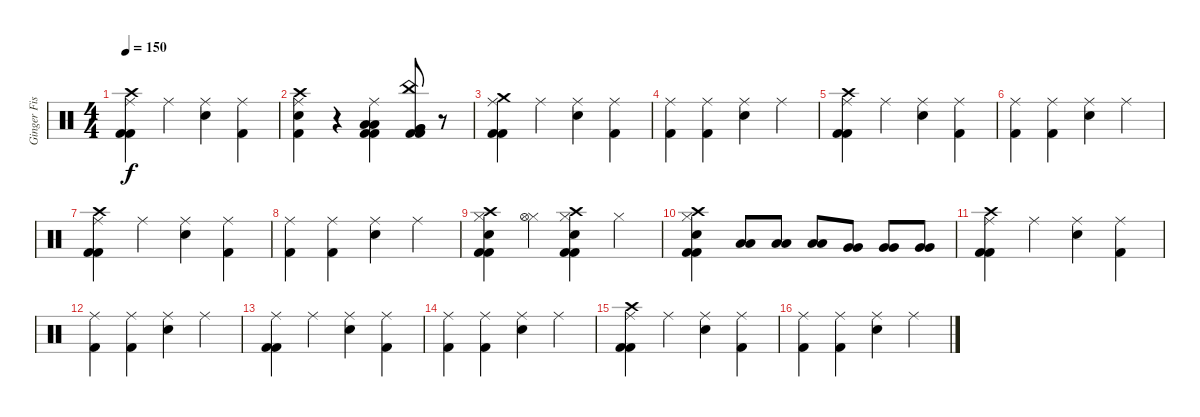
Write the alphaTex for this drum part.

\track ("Ginger Fish" "Ginger Fis") {instrument percussion}
\staff {score}
\articulation defaults
\ts (4 4)
\tempo 150
\clef neutral
\ks c
("Crash high (hit)" "Ride (middle)" "Kick (hit) 2" "Kick (hit) 2").4{dy f} "Ride (middle)".4 ("Ride (middle)" "Electric Snare (hit)").4 ("Ride (middle)" "Kick (hit) 2").4 |
("Crash high (hit)" "Ride (middle)" "Electric Snare (hit)" "Kick (hit) 2").4 r.4 ("Ride (middle)" "Low Tom (hit)" "Low Tom (hit)" "Kick (hit) 2" "Kick (hit) 2").4 ("China (hit)" "Very Low Tom (hit)" "Very Low Tom (hit)" "Kick (hit) 2" "Kick (hit) 2").8 r.8 |
("Crash medium (hit)" "Ride (middle)" "Kick (hit) 2" "Kick (hit) 2").4 "Ride (middle)".4 ("Ride (middle)" "Electric Snare (hit)").4 ("Ride (middle)" "Kick (hit) 2").4 |
("Ride (middle)" "Kick (hit) 2").4 ("Ride (middle)" "Kick (hit) 2").4 ("Ride (middle)" "Electric Snare (hit)").4 "Ride (middle)".4 |
("Crash high (hit)" "Ride (middle)" "Kick (hit) 2" "Kick (hit) 2").4 "Ride (middle)".4 ("Ride (middle)" "Electric Snare (hit)").4 ("Ride (middle)" "Kick (hit) 2").4 |
("Ride (middle)" "Kick (hit) 2").4 ("Ride (middle)" "Kick (hit) 2").4 ("Ride (middle)" "Electric Snare (hit)").4 "Ride (middle)".4 |
("Crash high (hit)" "Ride (middle)" "Kick (hit) 2" "Kick (hit) 2").4 "Ride (middle)".4 ("Ride (middle)" "Electric Snare (hit)").4 ("Ride (middle)" "Kick (hit) 2").4 |
("Ride (middle)" "Kick (hit) 2").4 ("Ride (middle)" "Kick (hit) 2").4 ("Ride (middle)" "Electric Snare (hit)").4 "Ride (middle)".4 |
("Crash high (hit)" "Hi-Hat (closed)" "Electric Snare (hit)" "Kick (hit) 2" "Kick (hit) 2").4 ("Hi-Hat (closed)" "Hi-Hat (open)").4 ("Crash high (hit)" "Hi-Hat (closed)" "Electric Snare (hit)" "Kick (hit) 2" "Kick (hit) 2").4 "Hi-Hat (closed)".4 |
("Crash high (hit)" "Hi-Hat (closed)" "Electric Snare (hit)" "Kick (hit) 2" "Kick (hit) 2").4 ("Low Tom (hit)" "Low Tom (hit)").8 ("Low Tom (hit)" "Low Tom (hit)").8 ("Low Tom (hit)" "Low Tom (hit)").8 ("Very Low Tom (hit)" "Very Low Tom (hit)").8 ("Very Low Tom (hit)" "Very Low Tom (hit)").8 ("Very Low Tom (hit)" "Very Low Tom (hit)").8 |
("Crash high (hit)" "Ride (middle)" "Kick (hit) 2" "Kick (hit) 2").4 "Ride (middle)".4 ("Ride (middle)" "Electric Snare (hit)").4 ("Ride (middle)" "Kick (hit) 2").4 |
("Ride (middle)" "Kick (hit) 2").4 ("Ride (middle)" "Kick (hit) 2").4 ("Ride (middle)" "Electric Snare (hit)").4 "Ride (middle)".4 |
("Ride (middle)" "Kick (hit) 2" "Kick (hit) 2").4 "Ride (middle)".4 ("Ride (middle)" "Electric Snare (hit)").4 ("Ride (middle)" "Kick (hit) 2").4 |
("Ride (middle)" "Kick (hit) 2").4 ("Ride (middle)" "Kick (hit) 2").4 ("Ride (middle)" "Electric Snare (hit)").4 "Ride (middle)".4 |
("Crash high (hit)" "Ride (middle)" "Kick (hit) 2" "Kick (hit) 2").4 "Ride (middle)".4 ("Ride (middle)" "Electric Snare (hit)").4 ("Ride (middle)" "Kick (hit) 2").4 |
("Ride (middle)" "Kick (hit) 2").4 ("Ride (middle)" "Kick (hit) 2").4 ("Ride (middle)" "Electric Snare (hit)").4 "Ride (middle)".4
